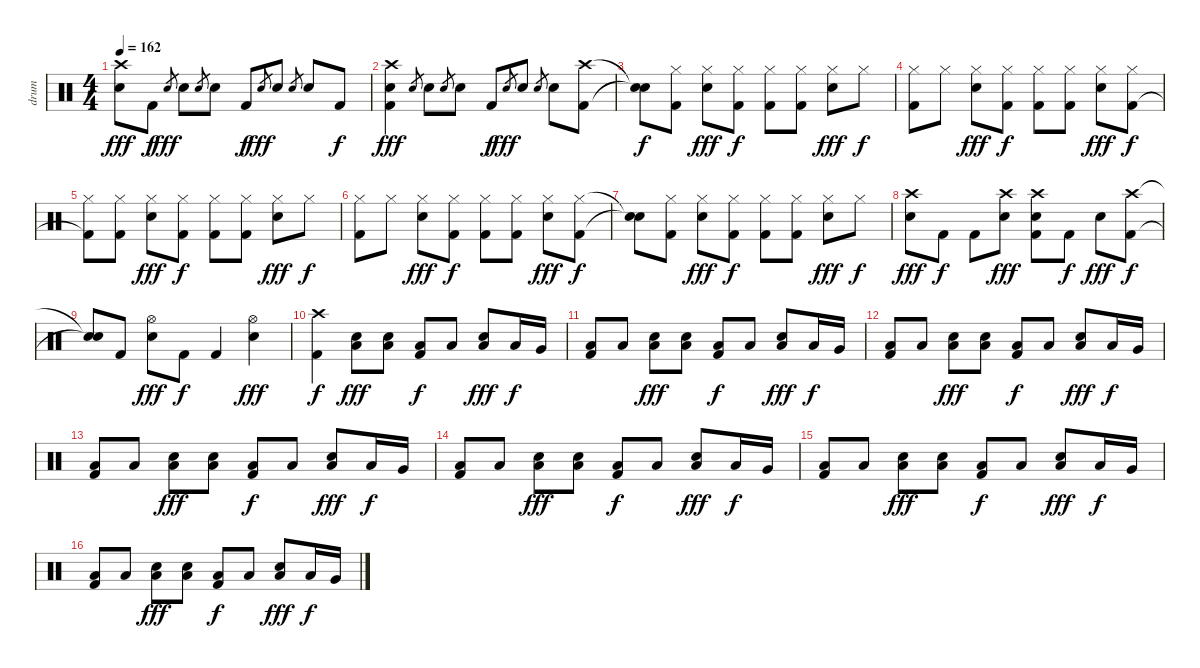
\track ("drum" "drum") {instrument percussion}
\staff {score}
\articulation defaults
\ts (4 4)
\tempo 162
\clef neutral
\ks c
("Crash high (hit)" "Electric Snare (hit)").8{dy fff} "Kick (hit) 2".8{dy f} "Electric Snare (hit)".8{gr dy fff} "Electric Snare (hit)".8 "Electric Snare (hit)".8{gr} "Electric Snare (hit)".8 "Kick (hit) 2".8{dy f} "Electric Snare (hit)".8{gr dy fff} "Electric Snare (hit)".8 "Electric Snare (hit)".8{gr} "Electric Snare (hit)".8 "Kick (hit) 2".8{dy f} |
("Crash high (hit)" "Electric Snare (hit)" "Kick (hit) 2").4{dy fff} "Electric Snare (hit)".8{gr} "Electric Snare (hit)".8 "Electric Snare (hit)".8{gr} "Electric Snare (hit)".8 "Kick (hit) 2".8{dy f} "Electric Snare (hit)".8{gr dy fff} "Electric Snare (hit)".8 "Electric Snare (hit)".8{gr} "Electric Snare (hit)".8 ("Crash high (hit)" "Kick (hit) 2").8 |
("Snare (hit)"{t} "Snare (hit)"{t}).8{dy f} ("Hi-Hat (closed)" "Kick (hit) 2").8 ("Hi-Hat (closed)" "Electric Snare (hit)").8{dy fff} ("Hi-Hat (closed)" "Kick (hit) 2").8{dy f} ("Hi-Hat (closed)" "Kick (hit) 2").8 ("Hi-Hat (closed)" "Kick (hit) 2").8 ("Hi-Hat (closed)" "Electric Snare (hit)").8{dy fff} "Hi-Hat (closed)".8{dy f} |
("Hi-Hat (closed)" "Kick (hit) 2").8 "Hi-Hat (closed)".8 ("Hi-Hat (closed)" "Electric Snare (hit)").8{dy fff} ("Hi-Hat (closed)" "Kick (hit) 2").8{dy f} ("Hi-Hat (closed)" "Kick (hit) 2").8 ("Hi-Hat (closed)" "Kick (hit) 2").8 ("Hi-Hat (closed)" "Electric Snare (hit)").8{dy fff} ("Hi-Hat (closed)" "Kick (hit) 2").8{dy f} |
("Hi-Hat (closed)" "Kick (hit) 2"{t}).8 ("Hi-Hat (closed)" "Kick (hit) 2").8 ("Hi-Hat (closed)" "Electric Snare (hit)").8{dy fff} ("Hi-Hat (closed)" "Kick (hit) 2").8{dy f} ("Hi-Hat (closed)" "Kick (hit) 2").8 ("Hi-Hat (closed)" "Kick (hit) 2").8 ("Hi-Hat (closed)" "Electric Snare (hit)").8{dy fff} "Hi-Hat (closed)".8{dy f} |
("Hi-Hat (closed)" "Kick (hit) 2").8 "Hi-Hat (closed)".8 ("Hi-Hat (closed)" "Electric Snare (hit)").8{dy fff} ("Hi-Hat (closed)" "Kick (hit) 2").8{dy f} ("Hi-Hat (closed)" "Kick (hit) 2").8 ("Hi-Hat (closed)" "Kick (hit) 2").8 ("Hi-Hat (closed)" "Electric Snare (hit)").8{dy fff} ("Hi-Hat (closed)" "Kick (hit) 2").8{dy f} |
("Snare (hit)"{t} "Snare (hit)"{t}).8 ("Hi-Hat (closed)" "Kick (hit) 2").8 ("Hi-Hat (closed)" "Electric Snare (hit)").8{dy fff} ("Hi-Hat (closed)" "Kick (hit) 2").8{dy f} ("Hi-Hat (closed)" "Kick (hit) 2").8 ("Hi-Hat (closed)" "Kick (hit) 2").8 ("Hi-Hat (closed)" "Electric Snare (hit)").8{dy fff} "Hi-Hat (closed)".8{dy f} |
("Crash high (hit)" "Electric Snare (hit)").8{dy fff} "Kick (hit) 2".8{dy f} "Kick (hit) 2".8 ("Crash high (hit)" "Electric Snare (hit)").8{dy fff} ("Crash high (hit)" "Electric Snare (hit)" "Kick (hit) 2").8 "Kick (hit) 2".8{dy f} "Electric Snare (hit)".8{dy fff} ("Crash high (hit)" "Kick (hit) 2").8{dy f} |
("Snare (hit)"{t} "Snare (hit)"{t}).8 "Kick (hit) 2".8 ("Hi-Hat (open)" "Electric Snare (hit)").8{dy fff} "Kick (hit) 2".8{dy f} "Kick (hit) 2".4 ("Hi-Hat (open)" "Electric Snare (hit)").4{dy fff} |
("Crash high (hit)" "Kick (hit) 2").4{dy f} ("Electric Snare (hit)" "Low Floor Tom (hit)").8{dy fff} ("Electric Snare (hit)" "Low Floor Tom (hit)").8 ("Low Floor Tom (hit)" "Kick (hit) 2").8{dy f} "Low Floor Tom (hit)".8 ("Electric Snare (hit)" "Low Floor Tom (hit)").8{dy fff} "Low Floor Tom (hit)".16{dy f} "Very Low Tom (hit)".16 |
("Low Floor Tom (hit)" "Kick (hit) 2").8 "Low Floor Tom (hit)".8 ("Electric Snare (hit)" "Low Floor Tom (hit)").8{dy fff} ("Electric Snare (hit)" "Low Floor Tom (hit)").8 ("Low Floor Tom (hit)" "Kick (hit) 2").8{dy f} "Low Floor Tom (hit)".8 ("Electric Snare (hit)" "Low Floor Tom (hit)").8{dy fff} "Low Floor Tom (hit)".16{dy f} "Very Low Tom (hit)".16 |
("Low Floor Tom (hit)" "Kick (hit) 2").8 "Low Floor Tom (hit)".8 ("Electric Snare (hit)" "Low Floor Tom (hit)").8{dy fff} ("Electric Snare (hit)" "Low Floor Tom (hit)").8 ("Low Floor Tom (hit)" "Kick (hit) 2").8{dy f} "Low Floor Tom (hit)".8 ("Electric Snare (hit)" "Low Floor Tom (hit)").8{dy fff} "Low Floor Tom (hit)".16{dy f} "Very Low Tom (hit)".16 |
("Low Floor Tom (hit)" "Kick (hit) 2").8 "Low Floor Tom (hit)".8 ("Electric Snare (hit)" "Low Floor Tom (hit)").8{dy fff} ("Electric Snare (hit)" "Low Floor Tom (hit)").8 ("Low Floor Tom (hit)" "Kick (hit) 2").8{dy f} "Low Floor Tom (hit)".8 ("Electric Snare (hit)" "Low Floor Tom (hit)").8{dy fff} "Low Floor Tom (hit)".16{dy f} "Very Low Tom (hit)".16 |
("Low Floor Tom (hit)" "Kick (hit) 2").8 "Low Floor Tom (hit)".8 ("Electric Snare (hit)" "Low Floor Tom (hit)").8{dy fff} ("Electric Snare (hit)" "Low Floor Tom (hit)").8 ("Low Floor Tom (hit)" "Kick (hit) 2").8{dy f} "Low Floor Tom (hit)".8 ("Electric Snare (hit)" "Low Floor Tom (hit)").8{dy fff} "Low Floor Tom (hit)".16{dy f} "Very Low Tom (hit)".16 |
("Low Floor Tom (hit)" "Kick (hit) 2").8 "Low Floor Tom (hit)".8 ("Electric Snare (hit)" "Low Floor Tom (hit)").8{dy fff} ("Electric Snare (hit)" "Low Floor Tom (hit)").8 ("Low Floor Tom (hit)" "Kick (hit) 2").8{dy f} "Low Floor Tom (hit)".8 ("Electric Snare (hit)" "Low Floor Tom (hit)").8{dy fff} "Low Floor Tom (hit)".16{dy f} "Very Low Tom (hit)".16 |
("Low Floor Tom (hit)" "Kick (hit) 2").8 "Low Floor Tom (hit)".8 ("Electric Snare (hit)" "Low Floor Tom (hit)").8{dy fff} ("Electric Snare (hit)" "Low Floor Tom (hit)").8 ("Low Floor Tom (hit)" "Kick (hit) 2").8{dy f} "Low Floor Tom (hit)".8 ("Electric Snare (hit)" "Low Floor Tom (hit)").8{dy fff} "Low Floor Tom (hit)".16{dy f} "Very Low Tom (hit)".16
